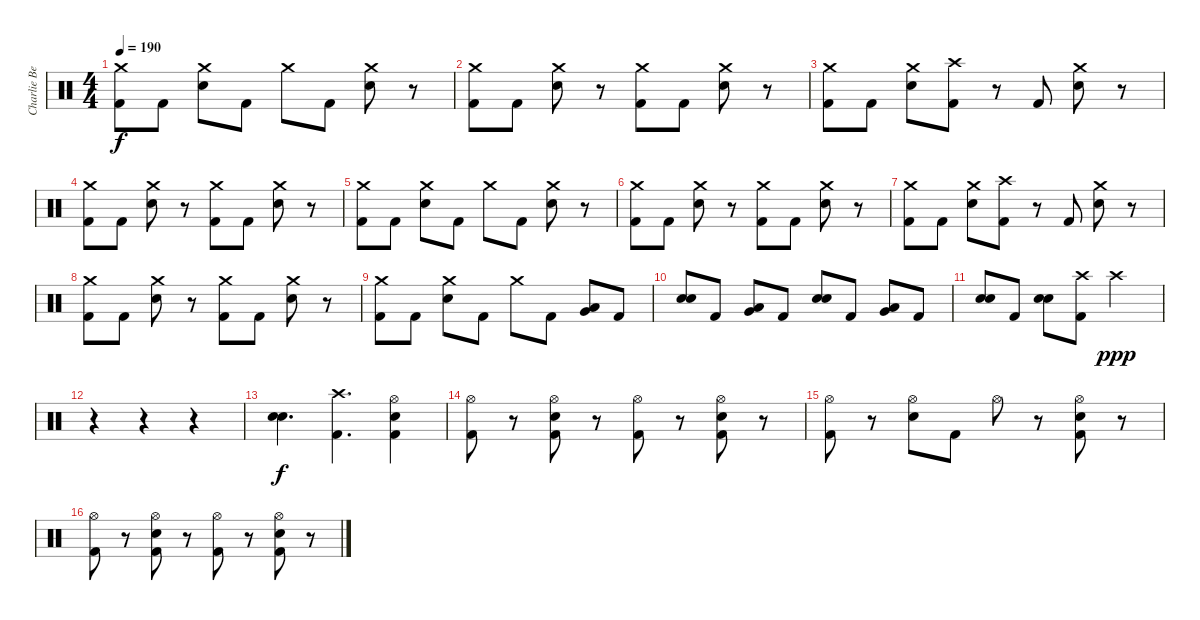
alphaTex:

\track ("Charlie Benante" "Charlie Be") {instrument percussion}
\staff {score}
\articulation defaults
\ts (4 4)
\tempo 190
\clef neutral
\ks c
("Kick (hit) 2" "Crash medium (hit)").8{dy f} "Kick (hit) 2".8 ("Snare (hit) 2" "Crash medium (hit)").8 "Kick (hit) 2".8 "Crash medium (hit)".8 "Kick (hit) 2".8 ("Snare (hit) 2" "Crash medium (hit)").8 r.8 |
("Kick (hit) 2" "Crash medium (hit)").8 "Kick (hit) 2".8 ("Snare (hit) 2" "Crash medium (hit)").8 r.8 ("Kick (hit) 2" "Crash medium (hit)").8 "Kick (hit) 2".8 ("Snare (hit) 2" "Crash medium (hit)").8 r.8 |
("Kick (hit) 2" "Crash medium (hit)").8 "Kick (hit) 2".8 ("Snare (hit) 2" "Crash medium (hit)").8 ("Kick (hit) 2" "Crash high (hit)").8 r.8 "Kick (hit) 2".8 ("Snare (hit) 2" "Crash medium (hit)").8 r.8 |
("Kick (hit) 2" "Crash medium (hit)").8 "Kick (hit) 2".8 ("Snare (hit) 2" "Crash medium (hit)").8 r.8 ("Kick (hit) 2" "Crash medium (hit)").8 "Kick (hit) 2".8 ("Snare (hit) 2" "Crash medium (hit)").8 r.8 |
("Kick (hit) 2" "Crash medium (hit)").8 "Kick (hit) 2".8 ("Snare (hit) 2" "Crash medium (hit)").8 "Kick (hit) 2".8 "Crash medium (hit)".8 "Kick (hit) 2".8 ("Snare (hit) 2" "Crash medium (hit)").8 r.8 |
("Kick (hit) 2" "Crash medium (hit)").8 "Kick (hit) 2".8 ("Snare (hit) 2" "Crash medium (hit)").8 r.8 ("Kick (hit) 2" "Crash medium (hit)").8 "Kick (hit) 2".8 ("Snare (hit) 2" "Crash medium (hit)").8 r.8 |
("Kick (hit) 2" "Crash medium (hit)").8 "Kick (hit) 2".8 ("Snare (hit) 2" "Crash medium (hit)").8 ("Kick (hit) 2" "Crash high (hit)").8 r.8 "Kick (hit) 2".8 ("Snare (hit) 2" "Crash medium (hit)").8 r.8 |
("Kick (hit) 2" "Crash medium (hit)").8 "Kick (hit) 2".8 ("Snare (hit) 2" "Crash medium (hit)").8 r.8 ("Kick (hit) 2" "Crash medium (hit)").8 "Kick (hit) 2".8 ("Snare (hit) 2" "Crash medium (hit)").8 r.8 |
("Kick (hit) 2" "Crash medium (hit)").8 "Kick (hit) 2".8 ("Snare (hit) 2" "Crash medium (hit)").8 "Kick (hit) 2".8 "Crash medium (hit)".8 "Kick (hit) 2".8 ("Very Low Tom (hit)" "Low Floor Tom (hit)").8{bd 120} "Kick (hit) 2".8 |
("Snare (hit) 2" "Snare (hit) 2").8{bd 120} "Kick (hit) 2".8 ("Very Low Tom (hit)" "Low Floor Tom (hit)").8{bd 120} "Kick (hit) 2".8 ("Snare (hit) 2" "Snare (hit) 2").8{bd 120} "Kick (hit) 2".8 ("Very Low Tom (hit)" "Low Floor Tom (hit)").8{bd 120} "Kick (hit) 2".8 |
("Snare (hit) 2" "Snare (hit) 2").8{bd 120} "Kick (hit) 2".8 ("Snare (hit) 2" "Snare (hit) 2").8{bd 120} ("Kick (hit) 2" "Crash high (hit)").8 "Crash high (hit)".2{dy ppp} |
r.4 r.4 r.4 |
("Snare (hit) 2" "Snare (hit) 2").4{d bd 120 dy f} ("Kick (hit) 2" "Crash high (hit)").4{d} ("Kick (hit) 2" "Snare (hit) 2" "Hi-Hat (open)").4 |
("Kick (hit) 2" "Hi-Hat (open)").8 r.8 ("Kick (hit) 2" "Snare (hit) 2" "Hi-Hat (open)").8 r.8 ("Kick (hit) 2" "Hi-Hat (open)").8 r.8 ("Kick (hit) 2" "Snare (hit) 2" "Hi-Hat (open)").8 r.8 |
("Kick (hit) 2" "Hi-Hat (open)").8 r.8 ("Snare (hit) 2" "Hi-Hat (open)").8 "Kick (hit) 2".8 "Hi-Hat (open)".8 r.8 ("Kick (hit) 2" "Snare (hit) 2" "Hi-Hat (open)").8 r.8 |
("Kick (hit) 2" "Hi-Hat (open)").8 r.8 ("Kick (hit) 2" "Snare (hit) 2" "Hi-Hat (open)").8 r.8 ("Kick (hit) 2" "Hi-Hat (open)").8 r.8 ("Kick (hit) 2" "Snare (hit) 2" "Hi-Hat (open)").8 r.8
